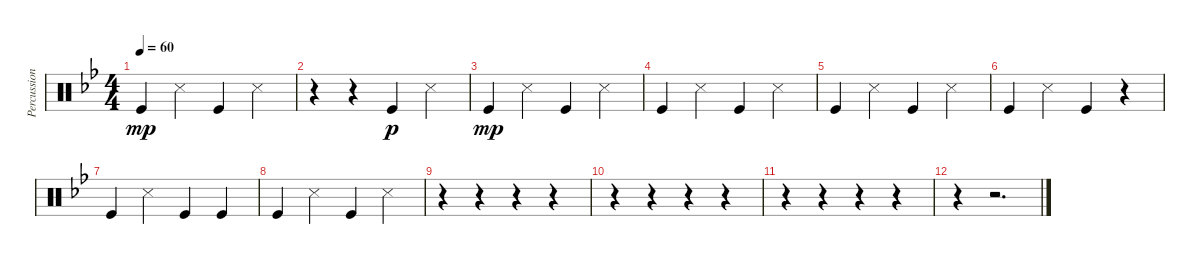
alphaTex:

\track ("Percussion" "Percussion") {instrument percussion}
\staff {score}
\articulation defaults
\ts (4 4)
\tempo 60
\clef neutral
\ks bb "Kick (hit)".4{dy mp} "Snare (side stick) 3".4 "Kick (hit)".4 "Snare (side stick) 3".4
|
r.4 r.4 "Kick (hit)".4{dy p} "Snare (side stick) 3".4 |
"Kick (hit)".4{dy mp} "Snare (side stick) 3".4 "Kick (hit)".4 "Snare (side stick) 3".4 |
"Kick (hit)".4 "Snare (side stick) 3".4 "Kick (hit)".4 "Snare (side stick) 3".4 |
"Kick (hit)".4 "Snare (side stick) 3".4 "Kick (hit)".4 "Snare (side stick) 3".4 |
"Kick (hit)".4 "Snare (side stick) 3".4 "Kick (hit)".4 r.4 |
"Kick (hit)".4 "Snare (side stick) 3".4 "Kick (hit)".4 "Kick (hit)".4 |
"Kick (hit)".4 "Snare (side stick) 3".4 "Kick (hit)".4 "Snare (side stick) 3".4 |
r.4 r.4 r.4 r.4 |
r.4 r.4 r.4 r.4 |
r.4 r.4 r.4 r.4 |
r.4 r.2{d}
